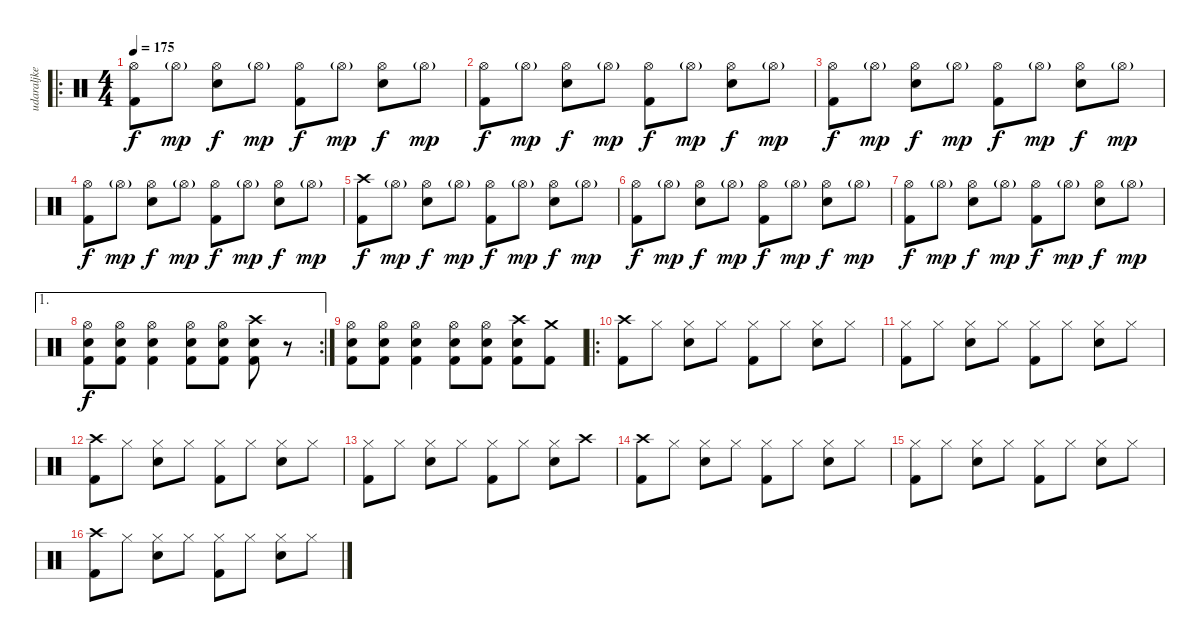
\track ("udaraljke" "udaraljke") {instrument percussion}
\staff {score}
\articulation defaults
\ro
\ts (4 4)
\tempo 175
\clef neutral
\ks c
("Hi-Hat (open)" "Kick (hit) 2").8{dy f} "Hi-Hat (open)"{g}.8{dy mp} ("Hi-Hat (open)" "Snare (hit) 2").8{dy f} "Hi-Hat (open)"{g}.8{dy mp} ("Hi-Hat (open)" "Kick (hit) 2").8{dy f} "Hi-Hat (open)"{g}.8{dy mp} ("Hi-Hat (open)" "Snare (hit) 2").8{dy f} "Hi-Hat (open)"{g}.8{dy mp} |
("Hi-Hat (open)" "Kick (hit) 2").8{dy f} "Hi-Hat (open)"{g}.8{dy mp} ("Hi-Hat (open)" "Snare (hit) 2").8{dy f} "Hi-Hat (open)"{g}.8{dy mp} ("Hi-Hat (open)" "Kick (hit) 2").8{dy f} "Hi-Hat (open)"{g}.8{dy mp} ("Hi-Hat (open)" "Snare (hit) 2").8{dy f} "Hi-Hat (open)"{g}.8{dy mp} |
("Hi-Hat (open)" "Kick (hit) 2").8{dy f} "Hi-Hat (open)"{g}.8{dy mp} ("Hi-Hat (open)" "Snare (hit) 2").8{dy f} "Hi-Hat (open)"{g}.8{dy mp} ("Hi-Hat (open)" "Kick (hit) 2").8{dy f} "Hi-Hat (open)"{g}.8{dy mp} ("Hi-Hat (open)" "Snare (hit) 2").8{dy f} "Hi-Hat (open)"{g}.8{dy mp} |
("Hi-Hat (open)" "Kick (hit) 2").8{dy f} "Hi-Hat (open)"{g}.8{dy mp} ("Hi-Hat (open)" "Snare (hit) 2").8{dy f} "Hi-Hat (open)"{g}.8{dy mp} ("Hi-Hat (open)" "Kick (hit) 2").8{dy f} "Hi-Hat (open)"{g}.8{dy mp} ("Hi-Hat (open)" "Snare (hit) 2").8{dy f} "Hi-Hat (open)"{g}.8{dy mp} |
("Crash high (hit)" "Kick (hit) 2").8{dy f} "Hi-Hat (open)"{g}.8{dy mp} ("Hi-Hat (open)" "Snare (hit) 2").8{dy f} "Hi-Hat (open)"{g}.8{dy mp} ("Hi-Hat (open)" "Kick (hit) 2").8{dy f} "Hi-Hat (open)"{g}.8{dy mp} ("Hi-Hat (open)" "Snare (hit) 2").8{dy f} "Hi-Hat (open)"{g}.8{dy mp} |
("Hi-Hat (open)" "Kick (hit) 2").8{dy f} "Hi-Hat (open)"{g}.8{dy mp} ("Hi-Hat (open)" "Snare (hit) 2").8{dy f} "Hi-Hat (open)"{g}.8{dy mp} ("Hi-Hat (open)" "Kick (hit) 2").8{dy f} "Hi-Hat (open)"{g}.8{dy mp} ("Hi-Hat (open)" "Snare (hit) 2").8{dy f} "Hi-Hat (open)"{g}.8{dy mp} |
("Hi-Hat (open)" "Kick (hit) 2").8{dy f} "Hi-Hat (open)"{g}.8{dy mp} ("Hi-Hat (open)" "Snare (hit) 2").8{dy f} "Hi-Hat (open)"{g}.8{dy mp} ("Hi-Hat (open)" "Kick (hit) 2").8{dy f} "Hi-Hat (open)"{g}.8{dy mp} ("Hi-Hat (open)" "Snare (hit) 2").8{dy f} "Hi-Hat (open)"{g}.8{dy mp} |
\ae 1
\rc 2
("Hi-Hat (open)" "Snare (hit) 2" "Kick (hit) 2").8{dy f} ("Hi-Hat (open)" "Snare (hit) 2" "Kick (hit) 2").8 ("Hi-Hat (open)" "Snare (hit) 2" "Kick (hit) 2").4 ("Hi-Hat (open)" "Snare (hit) 2" "Kick (hit) 2").8 ("Hi-Hat (open)" "Snare (hit) 2" "Kick (hit) 2").8 ("Crash high (hit)" "Snare (hit) 2" "Kick (hit) 2").8 r.8 |
("Hi-Hat (open)" "Snare (hit) 2" "Kick (hit) 2").8 ("Hi-Hat (open)" "Snare (hit) 2" "Kick (hit) 2").8 ("Hi-Hat (open)" "Snare (hit) 2" "Kick (hit) 2").4 ("Hi-Hat (open)" "Snare (hit) 2" "Kick (hit) 2").8 ("Hi-Hat (open)" "Snare (hit) 2" "Kick (hit) 2").8 ("Crash high (hit)" "Snare (hit) 2" "Kick (hit) 2").8 ("Crash medium (hit)" "Kick (hit) 2").8 |
\ro
("Crash high (hit)" "Kick (hit) 2").8 "Hi-Hat (closed)".8 ("Hi-Hat (closed)" "Snare (hit) 2").8 "Hi-Hat (closed)".8 ("Hi-Hat (closed)" "Kick (hit) 2").8 "Hi-Hat (closed)".8 ("Hi-Hat (closed)" "Snare (hit) 2").8 "Hi-Hat (closed)".8 |
("Hi-Hat (closed)" "Kick (hit) 2").8 "Hi-Hat (closed)".8 ("Hi-Hat (closed)" "Snare (hit) 2").8 "Hi-Hat (closed)".8 ("Hi-Hat (closed)" "Kick (hit) 2").8 "Hi-Hat (closed)".8 ("Hi-Hat (closed)" "Snare (hit) 2").8 "Hi-Hat (closed)".8 |
("Crash high (hit)" "Kick (hit) 2").8 "Hi-Hat (closed)".8 ("Hi-Hat (closed)" "Snare (hit) 2").8 "Hi-Hat (closed)".8 ("Hi-Hat (closed)" "Kick (hit) 2").8 "Hi-Hat (closed)".8 ("Hi-Hat (closed)" "Snare (hit) 2").8 "Hi-Hat (closed)".8 |
("Hi-Hat (closed)" "Kick (hit) 2").8 "Hi-Hat (closed)".8 ("Hi-Hat (closed)" "Snare (hit) 2").8 "Hi-Hat (closed)".8 ("Hi-Hat (closed)" "Kick (hit) 2").8 "Hi-Hat (closed)".8 ("Hi-Hat (closed)" "Snare (hit) 2").8 "Crash high (hit)".8 |
("Crash high (hit)" "Kick (hit) 2").8 "Hi-Hat (closed)".8 ("Hi-Hat (closed)" "Snare (hit) 2").8 "Hi-Hat (closed)".8 ("Hi-Hat (closed)" "Kick (hit) 2").8 "Hi-Hat (closed)".8 ("Hi-Hat (closed)" "Snare (hit) 2").8 "Hi-Hat (closed)".8 |
("Hi-Hat (closed)" "Kick (hit) 2").8 "Hi-Hat (closed)".8 ("Hi-Hat (closed)" "Snare (hit) 2").8 "Hi-Hat (closed)".8 ("Hi-Hat (closed)" "Kick (hit) 2").8 "Hi-Hat (closed)".8 ("Hi-Hat (closed)" "Snare (hit) 2").8 "Hi-Hat (closed)".8 |
("Crash high (hit)" "Kick (hit) 2").8 "Hi-Hat (closed)".8 ("Hi-Hat (closed)" "Snare (hit) 2").8 "Hi-Hat (closed)".8 ("Hi-Hat (closed)" "Kick (hit) 2").8 "Hi-Hat (closed)".8 ("Hi-Hat (closed)" "Snare (hit) 2").8 "Hi-Hat (closed)".8
